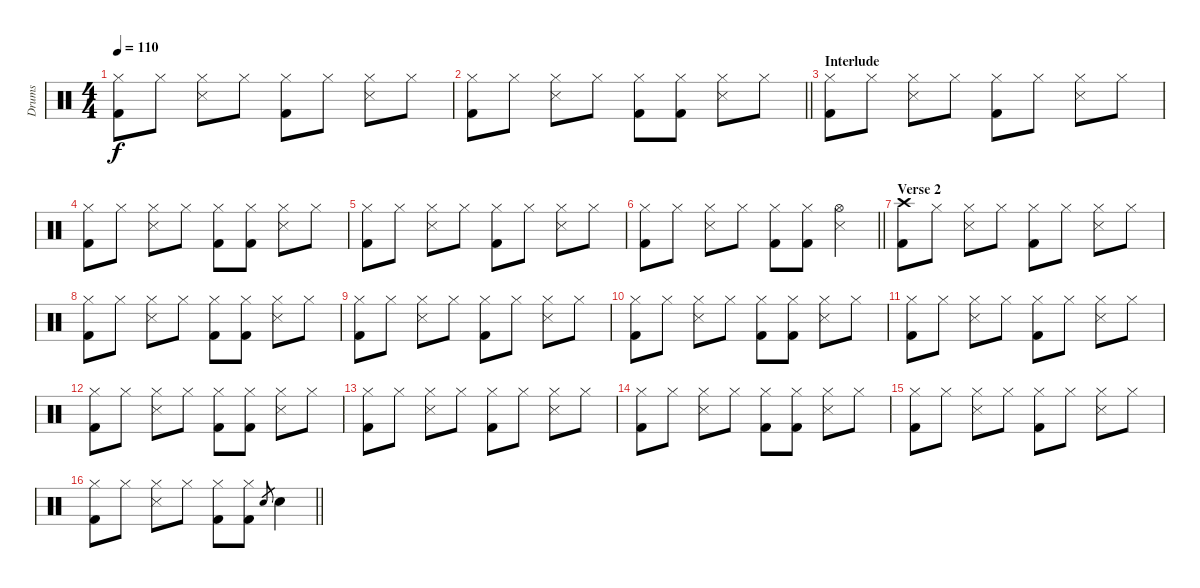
\track ("Drums" "Drums") {instrument percussion}
\staff {score}
\articulation defaults
\ts (4 4)
\tempo 110
\clef neutral
\ks c
("Hi-Hat (closed)" "Kick (hit) 2").8{dy f} "Hi-Hat (closed)".8 ("Hi-Hat (closed)" "Snare (side stick) 3").8 "Hi-Hat (closed)".8 ("Hi-Hat (closed)" "Kick (hit) 2").8 "Hi-Hat (closed)".8 ("Hi-Hat (closed)" "Snare (side stick) 3").8 "Hi-Hat (closed)".8 |
\barLineRight lightlight
("Hi-Hat (closed)" "Kick (hit) 2").8 "Hi-Hat (closed)".8 ("Hi-Hat (closed)" "Snare (side stick) 3").8 "Hi-Hat (closed)".8 ("Hi-Hat (closed)" "Kick (hit) 2").8 ("Hi-Hat (closed)" "Kick (hit) 2").8 ("Hi-Hat (closed)" "Snare (side stick) 3").8 "Hi-Hat (closed)".8 |
\section ("" "Interlude")
("Hi-Hat (closed)" "Kick (hit) 2").8 "Hi-Hat (closed)".8 ("Hi-Hat (closed)" "Snare (side stick) 3").8 "Hi-Hat (closed)".8 ("Hi-Hat (closed)" "Kick (hit) 2").8 "Hi-Hat (closed)".8 ("Hi-Hat (closed)" "Snare (side stick) 3").8 "Hi-Hat (closed)".8 |
("Hi-Hat (closed)" "Kick (hit) 2").8 "Hi-Hat (closed)".8 ("Hi-Hat (closed)" "Snare (side stick) 3").8 "Hi-Hat (closed)".8 ("Hi-Hat (closed)" "Kick (hit) 2").8 ("Hi-Hat (closed)" "Kick (hit) 2").8 ("Hi-Hat (closed)" "Snare (side stick) 3").8 "Hi-Hat (closed)".8 |
("Hi-Hat (closed)" "Kick (hit) 2").8 "Hi-Hat (closed)".8 ("Hi-Hat (closed)" "Snare (side stick) 3").8 "Hi-Hat (closed)".8 ("Hi-Hat (closed)" "Kick (hit) 2").8 "Hi-Hat (closed)".8 ("Hi-Hat (closed)" "Snare (side stick) 3").8 "Hi-Hat (closed)".8 |
\barLineRight lightlight
("Hi-Hat (closed)" "Kick (hit) 2").8 "Hi-Hat (closed)".8 ("Hi-Hat (closed)" "Snare (side stick) 3").8 "Hi-Hat (closed)".8 ("Hi-Hat (closed)" "Kick (hit) 2").8 ("Hi-Hat (closed)" "Kick (hit) 2").8 ("Hi-Hat (open)" "Snare (side stick) 3").4 |
\section ("" "Verse 2")
("Crash high (hit)" "Kick (hit) 2").8 "Hi-Hat (closed)".8 ("Hi-Hat (closed)" "Snare (side stick) 3").8 "Hi-Hat (closed)".8 ("Hi-Hat (closed)" "Kick (hit) 2").8 "Hi-Hat (closed)".8 ("Hi-Hat (closed)" "Snare (side stick) 3").8 "Hi-Hat (closed)".8 |
("Hi-Hat (closed)" "Kick (hit) 2").8 "Hi-Hat (closed)".8 ("Hi-Hat (closed)" "Snare (side stick) 3").8 "Hi-Hat (closed)".8 ("Hi-Hat (closed)" "Kick (hit) 2").8 ("Hi-Hat (closed)" "Kick (hit) 2").8 ("Hi-Hat (closed)" "Snare (side stick) 3").8 "Hi-Hat (closed)".8 |
("Hi-Hat (closed)" "Kick (hit) 2").8 "Hi-Hat (closed)".8 ("Hi-Hat (closed)" "Snare (side stick) 3").8 "Hi-Hat (closed)".8 ("Hi-Hat (closed)" "Kick (hit) 2").8 "Hi-Hat (closed)".8 ("Hi-Hat (closed)" "Snare (side stick) 3").8 "Hi-Hat (closed)".8 |
("Hi-Hat (closed)" "Kick (hit) 2").8 "Hi-Hat (closed)".8 ("Hi-Hat (closed)" "Snare (side stick) 3").8 "Hi-Hat (closed)".8 ("Hi-Hat (closed)" "Kick (hit) 2").8 ("Hi-Hat (closed)" "Kick (hit) 2").8 ("Hi-Hat (closed)" "Snare (side stick) 3").8 "Hi-Hat (closed)".8 |
("Hi-Hat (closed)" "Kick (hit) 2").8 "Hi-Hat (closed)".8 ("Hi-Hat (closed)" "Snare (side stick) 3").8 "Hi-Hat (closed)".8 ("Hi-Hat (closed)" "Kick (hit) 2").8 "Hi-Hat (closed)".8 ("Hi-Hat (closed)" "Snare (side stick) 3").8 "Hi-Hat (closed)".8 |
("Hi-Hat (closed)" "Kick (hit) 2").8 "Hi-Hat (closed)".8 ("Hi-Hat (closed)" "Snare (side stick) 3").8 "Hi-Hat (closed)".8 ("Hi-Hat (closed)" "Kick (hit) 2").8 ("Hi-Hat (closed)" "Kick (hit) 2").8 ("Hi-Hat (closed)" "Snare (side stick) 3").8 "Hi-Hat (closed)".8 |
("Hi-Hat (closed)" "Kick (hit) 2").8 "Hi-Hat (closed)".8 ("Hi-Hat (closed)" "Snare (side stick) 3").8 "Hi-Hat (closed)".8 ("Hi-Hat (closed)" "Kick (hit) 2").8 "Hi-Hat (closed)".8 ("Hi-Hat (closed)" "Snare (side stick) 3").8 "Hi-Hat (closed)".8 |
("Hi-Hat (closed)" "Kick (hit) 2").8 "Hi-Hat (closed)".8 ("Hi-Hat (closed)" "Snare (side stick) 3").8 "Hi-Hat (closed)".8 ("Hi-Hat (closed)" "Kick (hit) 2").8 ("Hi-Hat (closed)" "Kick (hit) 2").8 ("Hi-Hat (closed)" "Snare (side stick) 3").8 "Hi-Hat (closed)".8 |
("Hi-Hat (closed)" "Kick (hit) 2").8 "Hi-Hat (closed)".8 ("Hi-Hat (closed)" "Snare (side stick) 3").8 "Hi-Hat (closed)".8 ("Hi-Hat (closed)" "Kick (hit) 2").8 "Hi-Hat (closed)".8 ("Hi-Hat (closed)" "Snare (side stick) 3").8 "Hi-Hat (closed)".8 |
\barLineRight lightlight
("Hi-Hat (closed)" "Kick (hit) 2").8 "Hi-Hat (closed)".8 ("Hi-Hat (closed)" "Snare (side stick) 3").8 "Hi-Hat (closed)".8 ("Hi-Hat (closed)" "Kick (hit) 2").8 ("Hi-Hat (closed)" "Kick (hit) 2").8 "Electric Snare (hit)".8{gr} "Electric Snare (hit)".4
